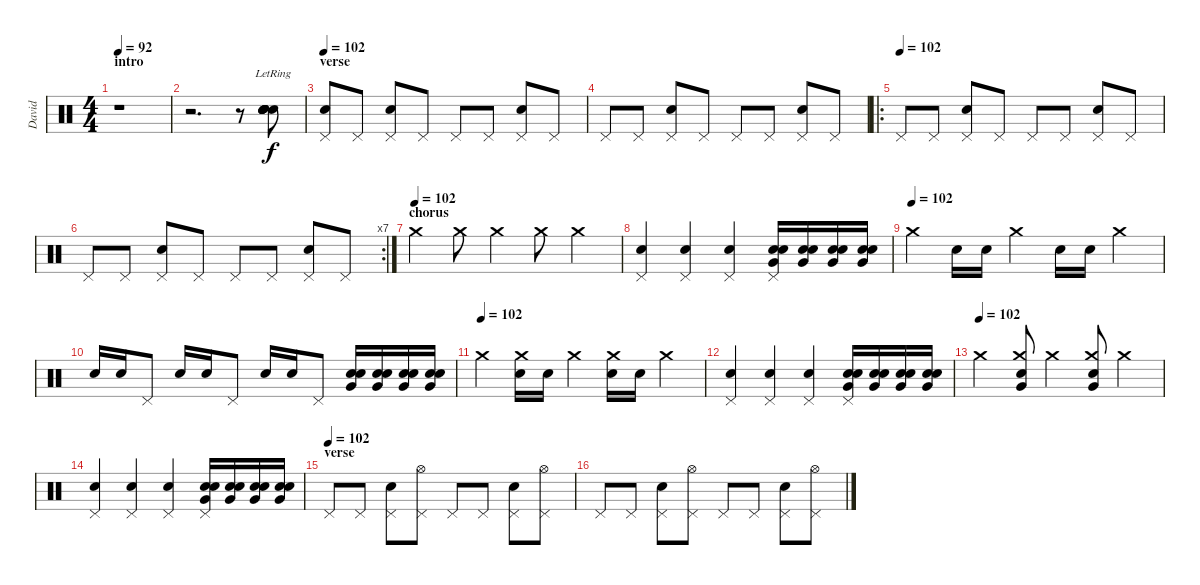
\track ("David" "David") {instrument percussion}
\staff {score}
\articulation defaults
\ts (4 4)
\section ("" "intro")
\tempo 92
\clef neutral
\ks c
r.1{dy f} |
r.2{d} r.8 ("Snare (hit) 2"{lr} "Snare (hit) 2"{lr} "Snare (hit) 2"{lr} "Snare (hit) 2"{lr} "Snare (hit) 2"{lr} "Snare (hit) 2"{lr}).8 |
\section ("" "verse")
\tempo 102
("Pedal Hi-Hat (hit)" "Snare (hit) 2").8 "Pedal Hi-Hat (hit)".8 ("Pedal Hi-Hat (hit)" "Snare (hit) 2").8 "Pedal Hi-Hat (hit)".8 "Pedal Hi-Hat (hit)".8 "Pedal Hi-Hat (hit)".8 ("Pedal Hi-Hat (hit)" "Snare (hit) 2").8 "Pedal Hi-Hat (hit)".8 |
"Pedal Hi-Hat (hit)".8 "Pedal Hi-Hat (hit)".8 ("Pedal Hi-Hat (hit)" "Snare (hit) 2").8 "Pedal Hi-Hat (hit)".8 "Pedal Hi-Hat (hit)".8 "Pedal Hi-Hat (hit)".8 ("Pedal Hi-Hat (hit)" "Snare (hit) 2").8 "Pedal Hi-Hat (hit)".8 |
\ro
\tempo (102)
"Pedal Hi-Hat (hit)".8 "Pedal Hi-Hat (hit)".8 ("Pedal Hi-Hat (hit)" "Snare (hit) 2").8 "Pedal Hi-Hat (hit)".8 "Pedal Hi-Hat (hit)".8 "Pedal Hi-Hat (hit)".8 ("Pedal Hi-Hat (hit)" "Snare (hit) 2").8 "Pedal Hi-Hat (hit)".8 |
\rc 7 "Pedal Hi-Hat (hit)".8 "Pedal Hi-Hat (hit)".8
("Pedal Hi-Hat (hit)" "Snare (hit) 2").8 "Pedal Hi-Hat (hit)".8 "Pedal Hi-Hat (hit)".8 "Pedal Hi-Hat (hit)".8 ("Pedal Hi-Hat (hit)" "Snare (hit) 2").8 "Pedal Hi-Hat (hit)".8 |
\section ("" "chorus")
\tempo (102)
"Crash medium (hit)".4 "Crash medium (hit)".8 "Crash medium (hit)".4 "Crash medium (hit)".8 "Crash medium (hit)".4 |
("Pedal Hi-Hat (hit)" "Snare (hit) 2").4 ("Pedal Hi-Hat (hit)" "Snare (hit) 2").4 ("Pedal Hi-Hat (hit)" "Snare (hit) 2").4 ("Pedal Hi-Hat (hit)" "Electric Snare (hit)" "Very Low Tom (hit)" "Snare (hit) 2").16 ("Electric Snare (hit)" "Very Low Tom (hit)" "Snare (hit) 2").16 ("Electric Snare (hit)" "Very Low Tom (hit)" "Snare (hit) 2").16 ("Electric Snare (hit)" "Very Low Tom (hit)" "Snare (hit) 2").16 |
\tempo (102)
"Crash medium (hit)".4 "Snare (hit) 2".16 "Snare (hit) 2".16 "Crash medium (hit)".4 "Snare (hit) 2".16 "Snare (hit) 2".16 "Crash medium (hit)".4 |
"Snare (hit) 2".16 "Snare (hit) 2".16 "Pedal Hi-Hat (hit)".8 "Snare (hit) 2".16 "Snare (hit) 2".16 "Pedal Hi-Hat (hit)".8 "Snare (hit) 2".16 "Snare (hit) 2".16 "Pedal Hi-Hat (hit)".8 ("Electric Snare (hit)" "Very Low Tom (hit)" "Snare (hit) 2").16 ("Electric Snare (hit)" "Very Low Tom (hit)" "Snare (hit) 2").16 ("Electric Snare (hit)" "Very Low Tom (hit)" "Snare (hit) 2").16 ("Electric Snare (hit)" "Very Low Tom (hit)" "Snare (hit) 2").16 |
\tempo (102)
"Crash medium (hit)".4 ("Crash medium (hit)" "Snare (hit) 2").16 "Snare (hit) 2".16 "Crash medium (hit)".4 ("Crash medium (hit)" "Snare (hit) 2").16 "Snare (hit) 2".16 "Crash medium (hit)".4 |
("Pedal Hi-Hat (hit)" "Snare (hit) 2").4 ("Pedal Hi-Hat (hit)" "Snare (hit) 2").4 ("Pedal Hi-Hat (hit)" "Snare (hit) 2").4 ("Pedal Hi-Hat (hit)" "Electric Snare (hit)" "Very Low Tom (hit)" "Snare (hit) 2").16 ("Electric Snare (hit)" "Very Low Tom (hit)" "Snare (hit) 2").16 ("Electric Snare (hit)" "Very Low Tom (hit)" "Snare (hit) 2").16 ("Electric Snare (hit)" "Very Low Tom (hit)" "Snare (hit) 2").16 |
\tempo (102)
"Crash medium (hit)".4 ("Crash medium (hit)" "Very Low Tom (hit)" "Snare (hit) 2").8 "Crash medium (hit)".4 ("Crash medium (hit)" "Very Low Tom (hit)" "Snare (hit) 2").8 "Crash medium (hit)".4 |
("Pedal Hi-Hat (hit)" "Snare (hit) 2").4 ("Pedal Hi-Hat (hit)" "Snare (hit) 2").4 ("Pedal Hi-Hat (hit)" "Snare (hit) 2").4 ("Pedal Hi-Hat (hit)" "Electric Snare (hit)" "Very Low Tom (hit)" "Snare (hit) 2").16 ("Electric Snare (hit)" "Very Low Tom (hit)" "Snare (hit) 2").16 ("Electric Snare (hit)" "Very Low Tom (hit)" "Snare (hit) 2").16 ("Electric Snare (hit)" "Very Low Tom (hit)" "Snare (hit) 2").16 |
\section ("" "verse")
\tempo (102)
"Pedal Hi-Hat (hit)".8 "Pedal Hi-Hat (hit)".8 ("Pedal Hi-Hat (hit)" "Snare (hit) 2").8 ("Pedal Hi-Hat (hit)" "Hi-Hat (open)").8 "Pedal Hi-Hat (hit)".8 "Pedal Hi-Hat (hit)".8 ("Pedal Hi-Hat (hit)" "Snare (hit) 2").8 ("Pedal Hi-Hat (hit)" "Hi-Hat (open)").8 |
"Pedal Hi-Hat (hit)".8 "Pedal Hi-Hat (hit)".8 ("Pedal Hi-Hat (hit)" "Snare (hit) 2").8 ("Pedal Hi-Hat (hit)" "Hi-Hat (open)").8 "Pedal Hi-Hat (hit)".8 "Pedal Hi-Hat (hit)".8 ("Pedal Hi-Hat (hit)" "Snare (hit) 2").8 ("Pedal Hi-Hat (hit)" "Hi-Hat (open)").8
